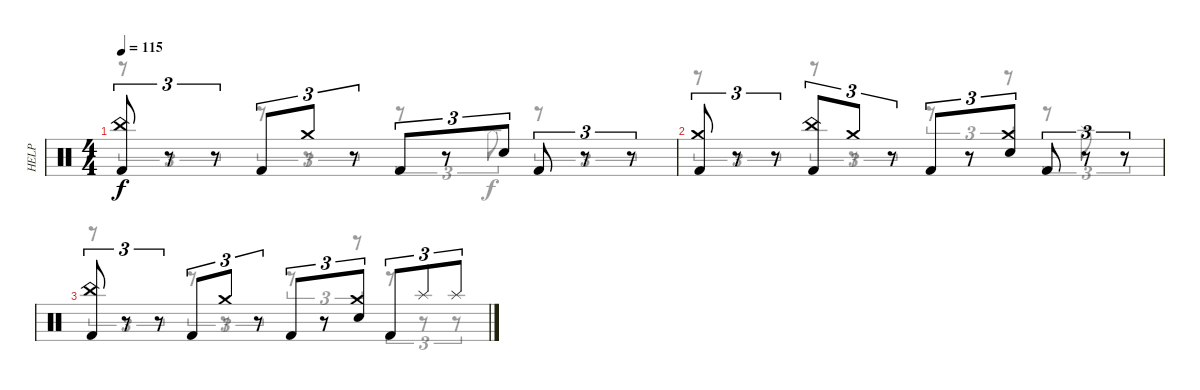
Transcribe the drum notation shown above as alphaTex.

\track ("HELP" "HELP") {instrument percussion}
\staff {score}
\articulation defaults
\voice
\ts (4 4)
\tempo 115
\clef neutral
\ks c
("China (hit)" "Kick (hit) 2").8{tu (3 2) dy f} r.8{tu (3 2)} r.8{tu (3 2)} "Kick (hit) 2".8{tu (3 2)} "Crash medium (hit)".8{tu (3 2)} r.8{tu (3 2)} "Kick (hit) 2".8{tu (3 2)} r.8{tu (3 2)} "Electric Snare (hit)".8{tu (3 2)} "Kick (hit) 2".8{tu (3 2)} r.8{tu (3 2)} r.8{tu (3 2)} |
("Crash medium (hit)" "Kick (hit) 2").8{tu (3 2)} r.8{tu (3 2)} r.8{tu (3 2)} ("China (hit)" "Kick (hit) 2").8{tu (3 2)} "Crash medium (hit)".8{tu (3 2)} r.8{tu (3 2)} "Kick (hit) 2".8{tu (3 2)} r.8{tu (3 2)} ("Crash medium (hit)" "Electric Snare (hit)").8{tu (3 2)} "Kick (hit) 2".8{tu (3 2)} r.8{tu (3 2)} r.8{tu (3 2)} |
("China (hit)" "Kick (hit) 2").8{tu (3 2)} r.8{tu (3 2)} r.8{tu (3 2)} "Kick (hit) 2".8{tu (3 2)} "Crash medium (hit)".8{tu (3 2)} r.8{tu (3 2)} "Kick (hit) 2".8{tu (3 2)} r.8{tu (3 2)} ("Crash medium (hit)" "Electric Snare (hit)").8{tu (3 2)} "Kick (hit) 2".8{tu (3 2)} "Splash (hit)".8{tu (3 2)} "Splash (hit)".8{tu (3 2)}
\voice
\clef neutral
\ottava regular
\simile none
\ks c
r.8{tu (3 2) dy f} r.8{tu (3 2)} r.8{tu (3 2)} r.8{tu (3 2)} r.8{tu (3 2)} r.8{tu (3 2)} r.8{tu (3 2)} r.8{tu (3 2)} "Splash (hit)".8{tu (3 2)} r.8{tu (3 2)} r.8{tu (3 2)} r.8{tu (3 2)} |
r.8{tu (3 2)} r.8{tu (3 2)} r.8{tu (3 2)} r.8{tu (3 2)} r.8{tu (3 2)} r.8{tu (3 2)} r.8{tu (3 2)} r.8{tu (3 2)} r.8{tu (3 2)} r.8{tu (3 2)} "Splash (hit)".8{tu (3 2)} r.8{tu (3 2)} |
r.8{tu (3 2)} r.8{tu (3 2)} r.8{tu (3 2)} r.8{tu (3 2)} r.8{tu (3 2)} r.8{tu (3 2)} r.8{tu (3 2)} r.8{tu (3 2)} r.8{tu (3 2)} r.8{tu (3 2)} r.8{tu (3 2)} r.8{tu (3 2)}
